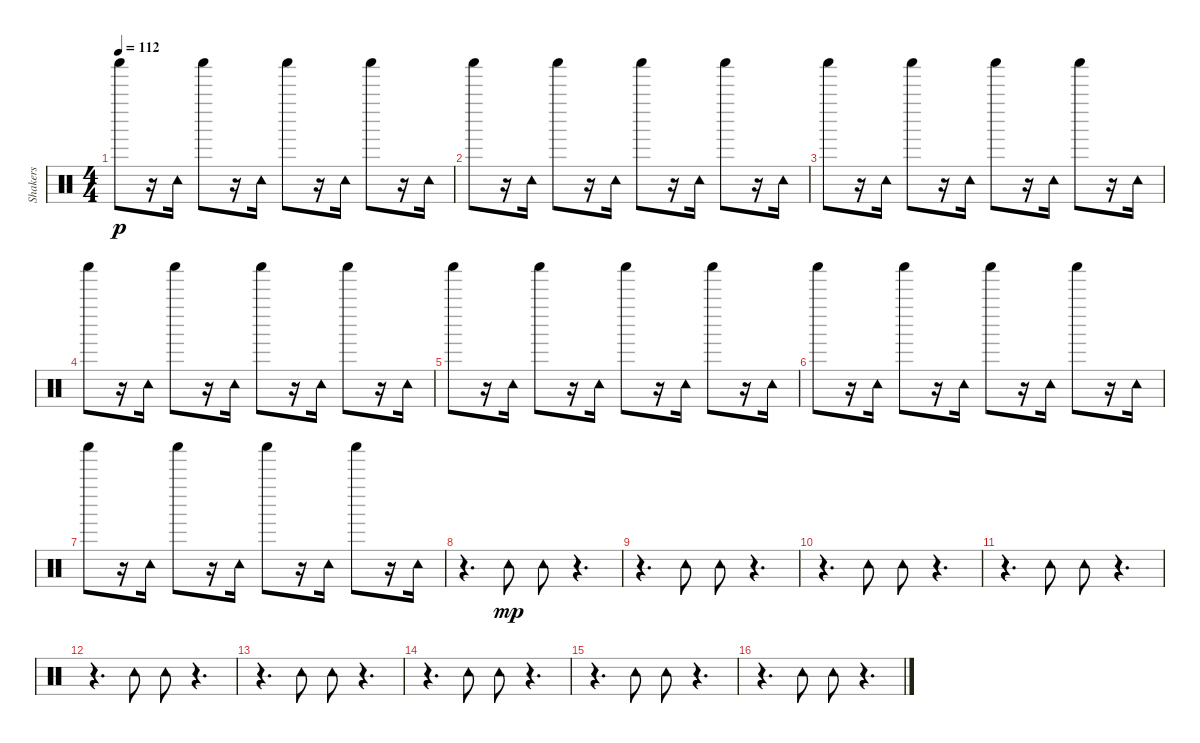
\track ("Shakers" "Shakers") {instrument percussion}
\staff {score}
\articulation defaults
\ts (4 4)
\tempo 112
\clef neutral
\ks c "Shaker (hit)".8{dy p}
r.16 "Tambourine (hit)".16 "Shaker (hit)".8 r.16 "Tambourine (hit)".16 "Shaker (hit)".8 r.16 "Tambourine (hit)".16 "Shaker (hit)".8 r.16 "Tambourine (hit)".16 |
"Shaker (hit)".8 r.16 "Tambourine (hit)".16 "Shaker (hit)".8 r.16 "Tambourine (hit)".16 "Shaker (hit)".8 r.16 "Tambourine (hit)".16 "Shaker (hit)".8 r.16 "Tambourine (hit)".16 |
"Shaker (hit)".8 r.16 "Tambourine (hit)".16 "Shaker (hit)".8 r.16 "Tambourine (hit)".16 "Shaker (hit)".8 r.16 "Tambourine (hit)".16 "Shaker (hit)".8 r.16 "Tambourine (hit)".16 |
"Shaker (hit)".8 r.16 "Tambourine (hit)".16 "Shaker (hit)".8 r.16 "Tambourine (hit)".16 "Shaker (hit)".8 r.16 "Tambourine (hit)".16 "Shaker (hit)".8 r.16 "Tambourine (hit)".16 |
"Shaker (hit)".8 r.16 "Tambourine (hit)".16 "Shaker (hit)".8 r.16 "Tambourine (hit)".16 "Shaker (hit)".8 r.16 "Tambourine (hit)".16 "Shaker (hit)".8 r.16 "Tambourine (hit)".16 |
"Shaker (hit)".8 r.16 "Tambourine (hit)".16 "Shaker (hit)".8 r.16 "Tambourine (hit)".16 "Shaker (hit)".8 r.16 "Tambourine (hit)".16 "Shaker (hit)".8 r.16 "Tambourine (hit)".16 |
"Shaker (hit)".8 r.16 "Tambourine (hit)".16 "Shaker (hit)".8 r.16 "Tambourine (hit)".16 "Shaker (hit)".8 r.16 "Tambourine (hit)".16 "Shaker (hit)".8 r.16 "Tambourine (hit)".16 |
r.4{d} "Tambourine (hit)".8{dy mp} "Tambourine (hit)".8 r.4{d} |
r.4{d} "Tambourine (hit)".8 "Tambourine (hit)".8 r.4{d} |
r.4{d} "Tambourine (hit)".8 "Tambourine (hit)".8 r.4{d} |
r.4{d} "Tambourine (hit)".8 "Tambourine (hit)".8 r.4{d} |
r.4{d} "Tambourine (hit)".8 "Tambourine (hit)".8 r.4{d} |
r.4{d} "Tambourine (hit)".8 "Tambourine (hit)".8 r.4{d} |
r.4{d} "Tambourine (hit)".8 "Tambourine (hit)".8 r.4{d} |
r.4{d} "Tambourine (hit)".8 "Tambourine (hit)".8 r.4{d} |
r.4{d} "Tambourine (hit)".8 "Tambourine (hit)".8 r.4{d}
